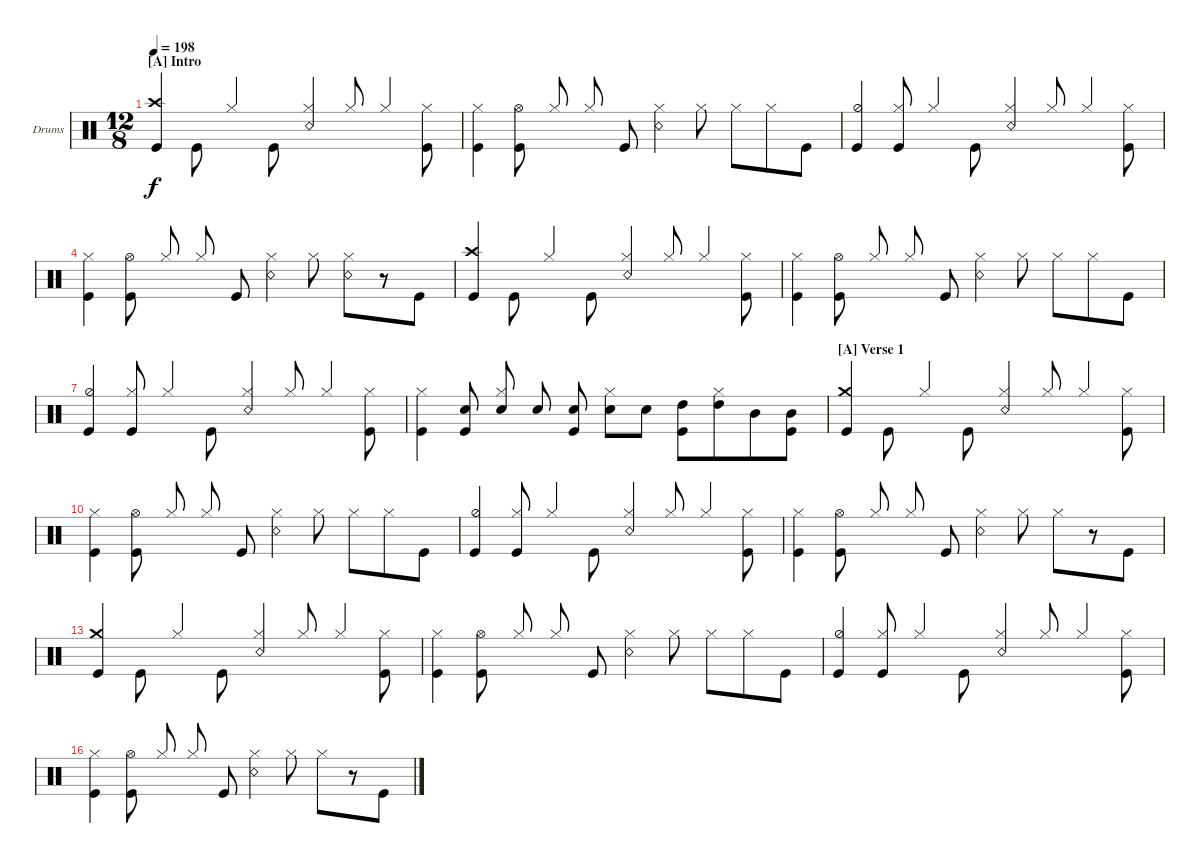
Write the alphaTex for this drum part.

\bracketExtendMode nobrackets
\firstSystemTrackNameOrientation horizontal
\otherSystemsTrackNameOrientation horizontal
\defaultBarNumberDisplay FirstOfSystem
\track ("Drumkit" "Drums") {instrument percussion}
\staff {score}
\articulation defaults
\ts (12 8)
\beaming (8 2 2 2 6)
\section ("A" "Intro")
\tempo 198
\clef neutral
\scale
0.278375
\ks c
("Kick (hit)" "Crash high (hit)").4{dy f beam invert} "Kick (hit)".8{beam invert} "Hi-Hat (closed)".4 "Kick (hit)".8{beam invert} ("Snare (rim shot)" "Hi-Hat (closed)").4 "Hi-Hat (closed)".8{beam invert} "Hi-Hat (closed)".4{beam invert} ("Kick (hit)" "Hi-Hat (closed)").8 |
\scale
0.248507 ("Kick (hit)" "Hi-Hat (closed)").4 ("Kick (hit)" "Hi-Hat (open)").8{beam split} "Hi-Hat (closed)".8 "Hi-Hat (closed)".8{beam invert beam split} "Kick (hit)".8 ("Snare (rim shot)" "Hi-Hat (closed)").4 "Hi-Hat (closed)".8{beam split} "Hi-Hat (closed)".8 "Hi-Hat (closed)".8 "Kick (hit)".8 |
\scale
0.224612 ("Kick (hit)" "Hi-Hat (half)").4{beam invert} ("Kick (hit)" "Hi-Hat (closed)").8{beam invert} "Hi-Hat (closed)".4 "Kick (hit)".8{beam invert} ("Snare (rim shot)" "Hi-Hat (closed)").4 "Hi-Hat (closed)".8{beam invert} "Hi-Hat (closed)".4{beam invert} ("Kick (hit)" "Hi-Hat (closed)").8 |
\scale
0.248507 ("Kick (hit)" "Hi-Hat (closed)").4 ("Kick (hit)" "Hi-Hat (open)").8{beam split} "Hi-Hat (closed)".8 "Hi-Hat (closed)".8{beam invert beam split} "Kick (hit)".8 ("Snare (rim shot)" "Hi-Hat (closed)").4 "Hi-Hat (closed)".8{beam split} ("Hi-Hat (closed)" "Snare (rim shot)").8 r.8 "Kick (hit)".8 |
\scale
0.234414 ("Kick (hit)" "Crash high (hit)").4{beam invert} "Kick (hit)".8{beam invert} "Hi-Hat (closed)".4 "Kick (hit)".8{beam invert} ("Snare (rim shot)" "Hi-Hat (closed)").4 "Hi-Hat (closed)".8{beam invert} "Hi-Hat (closed)".4{beam invert} ("Kick (hit)" "Hi-Hat (closed)").8 |
\scale
0.259352 ("Kick (hit)" "Hi-Hat (closed)").4 ("Kick (hit)" "Hi-Hat (open)").8{beam split} "Hi-Hat (closed)".8 "Hi-Hat (closed)".8{beam invert beam split} "Kick (hit)".8 ("Snare (rim shot)" "Hi-Hat (closed)").4 "Hi-Hat (closed)".8{beam split} "Hi-Hat (closed)".8 "Hi-Hat (closed)".8 "Kick (hit)".8 |
\scale
0.234414 ("Kick (hit)" "Hi-Hat (half)").4{beam invert} ("Kick (hit)" "Hi-Hat (closed)").8{beam invert} "Hi-Hat (closed)".4 "Kick (hit)".8{beam invert} ("Snare (rim shot)" "Hi-Hat (closed)").4 "Hi-Hat (closed)".8{beam invert} "Hi-Hat (closed)".4{beam invert} ("Kick (hit)" "Hi-Hat (closed)").8 |
\scale
0.27182 ("Kick (hit)" "Hi-Hat (closed)").4 ("Kick (hit)" "Snare (hit) 2").8{beam split} ("Hi-Hat (closed)" "Snare (hit) 2").8 "Snare (hit) 2".8{beam invert beam split} ("Snare (hit) 2" "Kick (hit)").8 ("Snare (hit) 2" "Hi-Hat (closed)").8 "Snare (hit) 2".8{beam split} ("High Tom (hit)" "Kick (hit)").8 ("High Tom (hit)" "Hi-Hat (closed)").8 "Mid Tom (hit)".8 ("Mid Tom (hit)" "Kick (hit)").8 |
\section ("A" "Verse 1")
\scale
0.237374 ("Kick (hit)" "Crash medium (hit)").4{beam invert} "Kick (hit)".8{beam invert} "Hi-Hat (closed)".4 "Kick (hit)".8{beam invert} ("Snare (rim shot)" "Hi-Hat (closed)").4 "Hi-Hat (closed)".8{beam invert} "Hi-Hat (closed)".4{beam invert} ("Kick (hit)" "Hi-Hat (closed)").8 |
\scale
0.262626 ("Kick (hit)" "Hi-Hat (closed)").4 ("Kick (hit)" "Hi-Hat (open)").8{beam split} "Hi-Hat (closed)".8 "Hi-Hat (closed)".8{beam invert beam split} "Kick (hit)".8 ("Snare (rim shot)" "Hi-Hat (closed)").4 "Hi-Hat (closed)".8{beam split} "Hi-Hat (closed)".8 "Hi-Hat (closed)".8 "Kick (hit)".8 |
\scale
0.237374 ("Kick (hit)" "Hi-Hat (half)").4{beam invert} ("Kick (hit)" "Hi-Hat (closed)").8{beam invert} "Hi-Hat (closed)".4 "Kick (hit)".8{beam invert} ("Snare (rim shot)" "Hi-Hat (closed)").4 "Hi-Hat (closed)".8{beam invert} "Hi-Hat (closed)".4{beam invert} ("Kick (hit)" "Hi-Hat (closed)").8 |
\scale
0.262626 ("Kick (hit)" "Hi-Hat (closed)").4 ("Kick (hit)" "Hi-Hat (open)").8{beam split} "Hi-Hat (closed)".8 "Hi-Hat (closed)".8{beam invert beam split} "Kick (hit)".8 ("Snare (rim shot)" "Hi-Hat (closed)").4 "Hi-Hat (closed)".8{beam split} "Hi-Hat (closed)".8 r.8 "Kick (hit)".8 |
\scale
0.237374 ("Kick (hit)" "Crash medium (hit)").4{beam invert} "Kick (hit)".8{beam invert} "Hi-Hat (closed)".4 "Kick (hit)".8{beam invert} ("Snare (rim shot)" "Hi-Hat (closed)").4 "Hi-Hat (closed)".8{beam invert} "Hi-Hat (closed)".4{beam invert} ("Kick (hit)" "Hi-Hat (closed)").8 |
\scale
0.262626 ("Kick (hit)" "Hi-Hat (closed)").4 ("Kick (hit)" "Hi-Hat (open)").8{beam split} "Hi-Hat (closed)".8 "Hi-Hat (closed)".8{beam invert beam split} "Kick (hit)".8 ("Snare (rim shot)" "Hi-Hat (closed)").4 "Hi-Hat (closed)".8{beam split} "Hi-Hat (closed)".8 "Hi-Hat (closed)".8 "Kick (hit)".8 |
\scale
0.237374 ("Kick (hit)" "Hi-Hat (half)").4{beam invert} ("Kick (hit)" "Hi-Hat (closed)").8{beam invert} "Hi-Hat (closed)".4 "Kick (hit)".8{beam invert} ("Snare (rim shot)" "Hi-Hat (closed)").4 "Hi-Hat (closed)".8{beam invert} "Hi-Hat (closed)".4{beam invert} ("Kick (hit)" "Hi-Hat (closed)").8 |
\scale
0.262626 ("Kick (hit)" "Hi-Hat (closed)").4 ("Kick (hit)" "Hi-Hat (open)").8{beam split} "Hi-Hat (closed)".8 "Hi-Hat (closed)".8{beam invert beam split} "Kick (hit)".8 ("Snare (rim shot)" "Hi-Hat (closed)").4 "Hi-Hat (closed)".8{beam split} "Hi-Hat (closed)".8 r.8 "Kick (hit)".8
